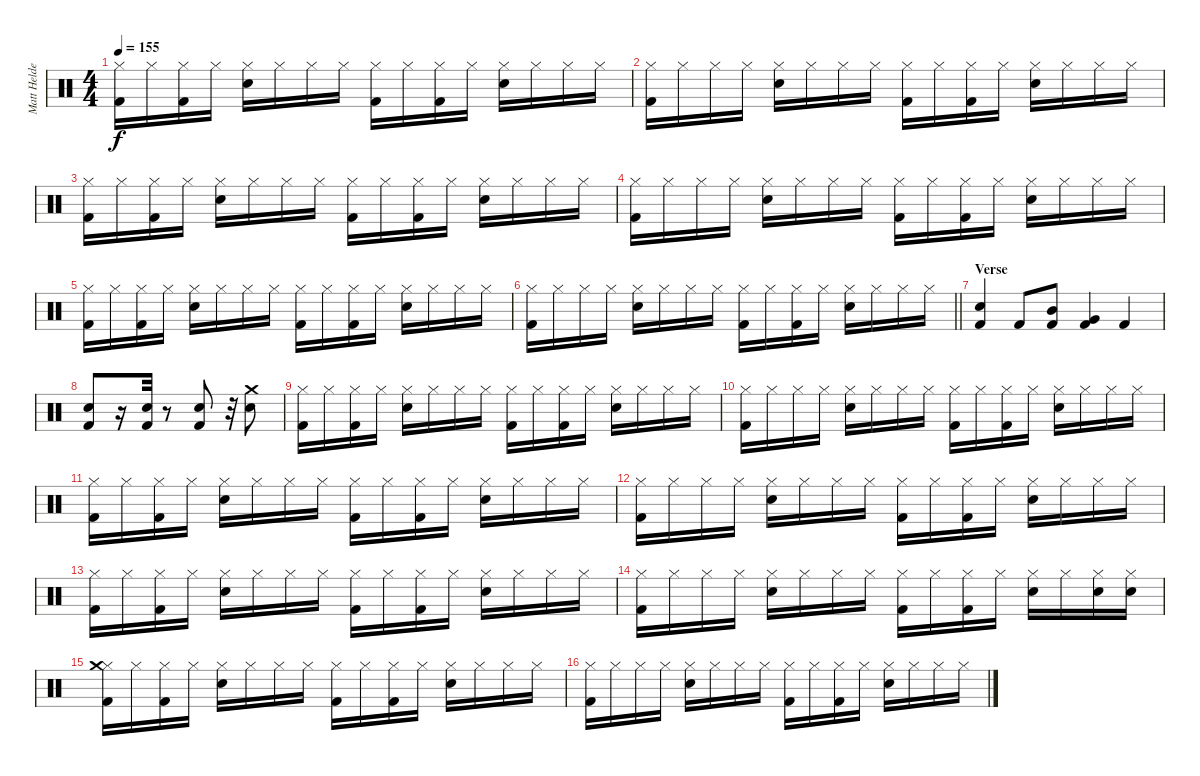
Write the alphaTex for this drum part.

\track ("Matt Helders" "Matt Helde") {instrument percussion}
\staff {score}
\articulation defaults
\ts (4 4)
\tempo 155
\clef neutral
\ks c
("Hi-Hat (closed)" "Kick (hit) 2").16{dy f} "Hi-Hat (closed)".16 ("Hi-Hat (closed)" "Kick (hit) 2").16 "Hi-Hat (closed)".16 ("Hi-Hat (closed)" "Snare (hit) 2").16 "Hi-Hat (closed)".16 "Hi-Hat (closed)".16 "Hi-Hat (closed)".16 ("Hi-Hat (closed)" "Kick (hit) 2").16 "Hi-Hat (closed)".16 ("Hi-Hat (closed)" "Kick (hit) 2").16 "Hi-Hat (closed)".16 ("Hi-Hat (closed)" "Snare (hit) 2").16 "Hi-Hat (closed)".16 "Hi-Hat (closed)".16 "Hi-Hat (closed)".16 |
("Hi-Hat (closed)" "Kick (hit) 2").16 "Hi-Hat (closed)".16 "Hi-Hat (closed)".16 "Hi-Hat (closed)".16 ("Hi-Hat (closed)" "Snare (hit) 2").16 "Hi-Hat (closed)".16 "Hi-Hat (closed)".16 "Hi-Hat (closed)".16 ("Hi-Hat (closed)" "Kick (hit) 2").16 "Hi-Hat (closed)".16 ("Hi-Hat (closed)" "Kick (hit) 2").16 "Hi-Hat (closed)".16 ("Hi-Hat (closed)" "Snare (hit) 2").16 "Hi-Hat (closed)".16 "Hi-Hat (closed)".16 "Hi-Hat (closed)".16 |
("Hi-Hat (closed)" "Kick (hit) 2").16 "Hi-Hat (closed)".16 ("Hi-Hat (closed)" "Kick (hit) 2").16 "Hi-Hat (closed)".16 ("Hi-Hat (closed)" "Snare (hit) 2").16 "Hi-Hat (closed)".16 "Hi-Hat (closed)".16 "Hi-Hat (closed)".16 ("Hi-Hat (closed)" "Kick (hit) 2").16 "Hi-Hat (closed)".16 ("Hi-Hat (closed)" "Kick (hit) 2").16 "Hi-Hat (closed)".16 ("Hi-Hat (closed)" "Snare (hit) 2").16 "Hi-Hat (closed)".16 "Hi-Hat (closed)".16 "Hi-Hat (closed)".16 |
("Hi-Hat (closed)" "Kick (hit) 2").16 "Hi-Hat (closed)".16 "Hi-Hat (closed)".16 "Hi-Hat (closed)".16 ("Hi-Hat (closed)" "Snare (hit) 2").16 "Hi-Hat (closed)".16 "Hi-Hat (closed)".16 "Hi-Hat (closed)".16 ("Hi-Hat (closed)" "Kick (hit) 2").16 "Hi-Hat (closed)".16 ("Hi-Hat (closed)" "Kick (hit) 2").16 "Hi-Hat (closed)".16 ("Hi-Hat (closed)" "Snare (hit) 2").16 "Hi-Hat (closed)".16 "Hi-Hat (closed)".16 "Hi-Hat (closed)".16 |
("Hi-Hat (closed)" "Kick (hit) 2").16 "Hi-Hat (closed)".16 ("Hi-Hat (closed)" "Kick (hit) 2").16 "Hi-Hat (closed)".16 ("Hi-Hat (closed)" "Snare (hit) 2").16 "Hi-Hat (closed)".16 "Hi-Hat (closed)".16 "Hi-Hat (closed)".16 ("Hi-Hat (closed)" "Kick (hit) 2").16 "Hi-Hat (closed)".16 ("Hi-Hat (closed)" "Kick (hit) 2").16 "Hi-Hat (closed)".16 ("Hi-Hat (closed)" "Snare (hit) 2").16 "Hi-Hat (closed)".16 "Hi-Hat (closed)".16 "Hi-Hat (closed)".16 |
\barLineRight lightlight
("Hi-Hat (closed)" "Kick (hit) 2").16 "Hi-Hat (closed)".16 "Hi-Hat (closed)".16 "Hi-Hat (closed)".16 ("Hi-Hat (closed)" "Snare (hit) 2").16 "Hi-Hat (closed)".16 "Hi-Hat (closed)".16 "Hi-Hat (closed)".16 ("Hi-Hat (closed)" "Kick (hit) 2").16 "Hi-Hat (closed)".16 ("Hi-Hat (closed)" "Kick (hit) 2").16 "Hi-Hat (closed)".16 ("Hi-Hat (closed)" "Snare (hit) 2").16 "Hi-Hat (closed)".16 "Hi-Hat (closed)".16 "Hi-Hat (closed)".16 |
\section ("" "Verse")
("Snare (hit) 2" "Kick (hit) 2").4 "Kick (hit) 2".8 ("Mid Tom (hit)" "Kick (hit) 2").8 ("Very Low Tom (hit)" "Kick (hit) 2").4 "Kick (hit) 2".4 |
("Snare (hit) 2" "Kick (hit) 2").8 r.16 ("Snare (hit) 2" "Kick (hit) 2").32 r.8 ("Snare (hit) 2" "Kick (hit) 2").8 r.32 ("Snare (hit) 2" "Crash medium (hit)").8 |
("Hi-Hat (closed)" "Kick (hit) 2").16 "Hi-Hat (closed)".16 ("Hi-Hat (closed)" "Kick (hit) 2").16 "Hi-Hat (closed)".16 ("Hi-Hat (closed)" "Snare (hit) 2").16 "Hi-Hat (closed)".16 "Hi-Hat (closed)".16 "Hi-Hat (closed)".16 ("Hi-Hat (closed)" "Kick (hit) 2").16 "Hi-Hat (closed)".16 ("Hi-Hat (closed)" "Kick (hit) 2").16 "Hi-Hat (closed)".16 ("Hi-Hat (closed)" "Snare (hit) 2").16 "Hi-Hat (closed)".16 "Hi-Hat (closed)".16 "Hi-Hat (closed)".16 |
("Hi-Hat (closed)" "Kick (hit) 2").16 "Hi-Hat (closed)".16 "Hi-Hat (closed)".16 "Hi-Hat (closed)".16 ("Hi-Hat (closed)" "Snare (hit) 2").16 "Hi-Hat (closed)".16 "Hi-Hat (closed)".16 "Hi-Hat (closed)".16 ("Hi-Hat (closed)" "Kick (hit) 2").16 "Hi-Hat (closed)".16 ("Hi-Hat (closed)" "Kick (hit) 2").16 "Hi-Hat (closed)".16 ("Hi-Hat (closed)" "Snare (hit) 2").16 "Hi-Hat (closed)".16 "Hi-Hat (closed)".16 "Hi-Hat (closed)".16 |
("Hi-Hat (closed)" "Kick (hit) 2").16 "Hi-Hat (closed)".16 ("Hi-Hat (closed)" "Kick (hit) 2").16 "Hi-Hat (closed)".16 ("Hi-Hat (closed)" "Snare (hit) 2").16 "Hi-Hat (closed)".16 "Hi-Hat (closed)".16 "Hi-Hat (closed)".16 ("Hi-Hat (closed)" "Kick (hit) 2").16 "Hi-Hat (closed)".16 ("Hi-Hat (closed)" "Kick (hit) 2").16 "Hi-Hat (closed)".16 ("Hi-Hat (closed)" "Snare (hit) 2").16 "Hi-Hat (closed)".16 "Hi-Hat (closed)".16 "Hi-Hat (closed)".16 |
("Hi-Hat (closed)" "Kick (hit) 2").16 "Hi-Hat (closed)".16 "Hi-Hat (closed)".16 "Hi-Hat (closed)".16 ("Hi-Hat (closed)" "Snare (hit) 2").16 "Hi-Hat (closed)".16 "Hi-Hat (closed)".16 "Hi-Hat (closed)".16 ("Hi-Hat (closed)" "Kick (hit) 2").16 "Hi-Hat (closed)".16 ("Hi-Hat (closed)" "Kick (hit) 2").16 "Hi-Hat (closed)".16 ("Hi-Hat (closed)" "Snare (hit) 2").16 "Hi-Hat (closed)".16 "Hi-Hat (closed)".16 "Hi-Hat (closed)".16 |
("Hi-Hat (closed)" "Kick (hit) 2").16 "Hi-Hat (closed)".16 ("Hi-Hat (closed)" "Kick (hit) 2").16 "Hi-Hat (closed)".16 ("Hi-Hat (closed)" "Snare (hit) 2").16 "Hi-Hat (closed)".16 "Hi-Hat (closed)".16 "Hi-Hat (closed)".16 ("Hi-Hat (closed)" "Kick (hit) 2").16 "Hi-Hat (closed)".16 ("Hi-Hat (closed)" "Kick (hit) 2").16 "Hi-Hat (closed)".16 ("Hi-Hat (closed)" "Snare (hit) 2").16 "Hi-Hat (closed)".16 "Hi-Hat (closed)".16 "Hi-Hat (closed)".16 |
("Hi-Hat (closed)" "Kick (hit) 2").16 "Hi-Hat (closed)".16 "Hi-Hat (closed)".16 "Hi-Hat (closed)".16 ("Hi-Hat (closed)" "Snare (hit) 2").16 "Hi-Hat (closed)".16 "Hi-Hat (closed)".16 "Hi-Hat (closed)".16 ("Hi-Hat (closed)" "Kick (hit) 2").16 "Hi-Hat (closed)".16 ("Hi-Hat (closed)" "Kick (hit) 2").16 "Hi-Hat (closed)".16 ("Hi-Hat (closed)" "Snare (hit) 2").16 "Hi-Hat (closed)".16 ("Hi-Hat (closed)" "Snare (hit) 2").16 ("Hi-Hat (closed)" "Snare (hit) 2").16 |
("Hi-Hat (closed)" "Kick (hit) 2" "Crash medium (hit)").16 "Hi-Hat (closed)".16 ("Hi-Hat (closed)" "Kick (hit) 2").16 "Hi-Hat (closed)".16 ("Hi-Hat (closed)" "Snare (hit) 2").16 "Hi-Hat (closed)".16 "Hi-Hat (closed)".16 "Hi-Hat (closed)".16 ("Hi-Hat (closed)" "Kick (hit) 2").16 "Hi-Hat (closed)".16 ("Hi-Hat (closed)" "Kick (hit) 2").16 "Hi-Hat (closed)".16 ("Hi-Hat (closed)" "Snare (hit) 2").16 "Hi-Hat (closed)".16 "Hi-Hat (closed)".16 "Hi-Hat (closed)".16 |
("Hi-Hat (closed)" "Kick (hit) 2").16 "Hi-Hat (closed)".16 "Hi-Hat (closed)".16 "Hi-Hat (closed)".16 ("Hi-Hat (closed)" "Snare (hit) 2").16 "Hi-Hat (closed)".16 "Hi-Hat (closed)".16 "Hi-Hat (closed)".16 ("Hi-Hat (closed)" "Kick (hit) 2").16 "Hi-Hat (closed)".16 ("Hi-Hat (closed)" "Kick (hit) 2").16 "Hi-Hat (closed)".16 ("Hi-Hat (closed)" "Snare (hit) 2").16 "Hi-Hat (closed)".16 "Hi-Hat (closed)".16 "Hi-Hat (closed)".16
